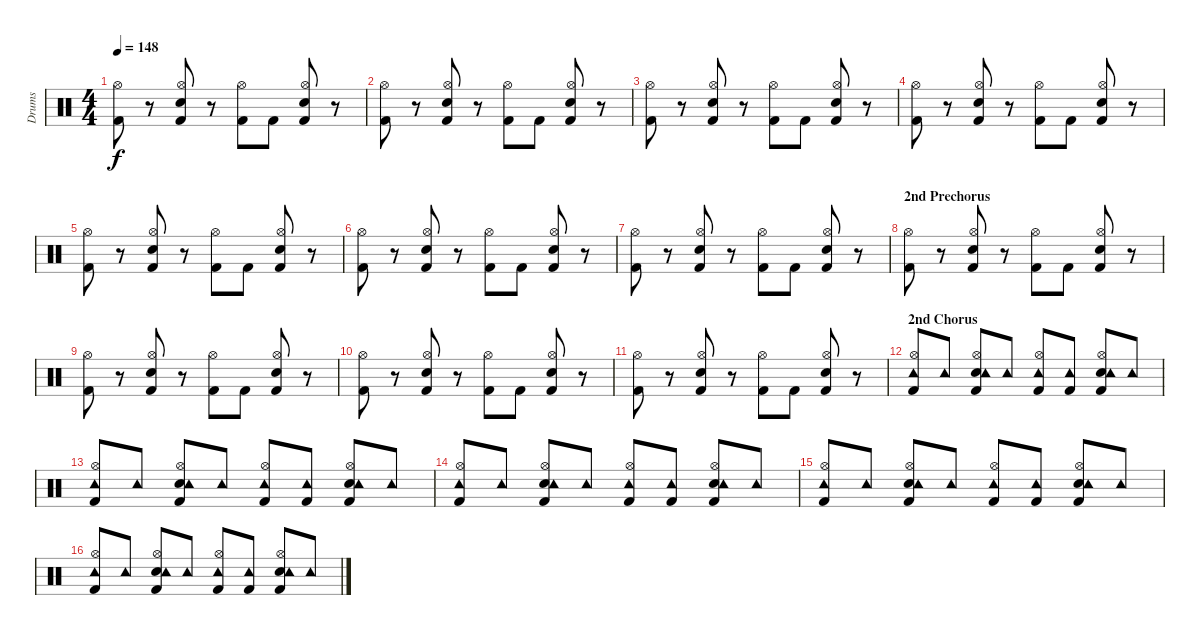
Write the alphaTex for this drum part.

\track ("Drums" "Drums") {instrument percussion}
\staff {score}
\articulation defaults
\ts (4 4)
\tempo 148
\clef neutral
\ks c
("Kick (hit) 2" "Hi-Hat (open)").8{dy f} r.8 ("Kick (hit) 2" "Electric Snare (hit)" "Hi-Hat (open)").8 r.8 ("Kick (hit) 2" "Hi-Hat (open)").8 "Kick (hit) 2".8 ("Kick (hit) 2" "Electric Snare (hit)" "Hi-Hat (open)").8 r.8 |
("Kick (hit) 2" "Hi-Hat (open)").8 r.8 ("Kick (hit) 2" "Electric Snare (hit)" "Hi-Hat (open)").8 r.8 ("Kick (hit) 2" "Hi-Hat (open)").8 "Kick (hit) 2".8 ("Kick (hit) 2" "Electric Snare (hit)" "Hi-Hat (open)").8 r.8 |
("Kick (hit) 2" "Hi-Hat (open)").8 r.8 ("Kick (hit) 2" "Electric Snare (hit)" "Hi-Hat (open)").8 r.8 ("Kick (hit) 2" "Hi-Hat (open)").8 "Kick (hit) 2".8 ("Kick (hit) 2" "Electric Snare (hit)" "Hi-Hat (open)").8 r.8 |
("Kick (hit) 2" "Hi-Hat (open)").8 r.8 ("Kick (hit) 2" "Electric Snare (hit)" "Hi-Hat (open)").8 r.8 ("Kick (hit) 2" "Hi-Hat (open)").8 "Kick (hit) 2".8 ("Kick (hit) 2" "Electric Snare (hit)" "Hi-Hat (open)").8 r.8 |
("Kick (hit) 2" "Hi-Hat (open)").8 r.8 ("Kick (hit) 2" "Electric Snare (hit)" "Hi-Hat (open)").8 r.8 ("Kick (hit) 2" "Hi-Hat (open)").8 "Kick (hit) 2".8 ("Kick (hit) 2" "Electric Snare (hit)" "Hi-Hat (open)").8 r.8 |
("Kick (hit) 2" "Hi-Hat (open)").8 r.8 ("Kick (hit) 2" "Electric Snare (hit)" "Hi-Hat (open)").8 r.8 ("Kick (hit) 2" "Hi-Hat (open)").8 "Kick (hit) 2".8 ("Kick (hit) 2" "Electric Snare (hit)" "Hi-Hat (open)").8 r.8 |
("Kick (hit) 2" "Hi-Hat (open)").8 r.8 ("Kick (hit) 2" "Electric Snare (hit)" "Hi-Hat (open)").8 r.8 ("Kick (hit) 2" "Hi-Hat (open)").8 "Kick (hit) 2".8 ("Kick (hit) 2" "Electric Snare (hit)" "Hi-Hat (open)").8 r.8 |
\section ("" "2nd Prechorus")
("Kick (hit) 2" "Hi-Hat (open)").8 r.8 ("Kick (hit) 2" "Electric Snare (hit)" "Hi-Hat (open)").8 r.8 ("Kick (hit) 2" "Hi-Hat (open)").8 "Kick (hit) 2".8 ("Kick (hit) 2" "Electric Snare (hit)" "Hi-Hat (open)").8 r.8 |
("Kick (hit) 2" "Hi-Hat (open)").8 r.8 ("Kick (hit) 2" "Electric Snare (hit)" "Hi-Hat (open)").8 r.8 ("Kick (hit) 2" "Hi-Hat (open)").8 "Kick (hit) 2".8 ("Kick (hit) 2" "Electric Snare (hit)" "Hi-Hat (open)").8 r.8 |
("Kick (hit) 2" "Hi-Hat (open)").8 r.8 ("Kick (hit) 2" "Electric Snare (hit)" "Hi-Hat (open)").8 r.8 ("Kick (hit) 2" "Hi-Hat (open)").8 "Kick (hit) 2".8 ("Kick (hit) 2" "Electric Snare (hit)" "Hi-Hat (open)").8 r.8 |
("Kick (hit) 2" "Hi-Hat (open)").8 r.8 ("Kick (hit) 2" "Electric Snare (hit)" "Hi-Hat (open)").8 r.8 ("Kick (hit) 2" "Hi-Hat (open)").8 "Kick (hit) 2".8 ("Kick (hit) 2" "Electric Snare (hit)" "Hi-Hat (open)").8 r.8 |
\section ("" "2nd Chorus")
("Kick (hit) 2" "Tambourine (hit)" "Hi-Hat (open)").8 "Tambourine (hit)".8 ("Kick (hit) 2" "Electric Snare (hit)" "Tambourine (hit)" "Hi-Hat (open)").8 "Tambourine (hit)".8 ("Kick (hit) 2" "Tambourine (hit)" "Hi-Hat (open)").8 ("Kick (hit) 2" "Tambourine (hit)").8 ("Kick (hit) 2" "Electric Snare (hit)" "Tambourine (hit)" "Hi-Hat (open)").8 "Tambourine (hit)".8 |
("Kick (hit) 2" "Tambourine (hit)" "Hi-Hat (open)").8 "Tambourine (hit)".8 ("Kick (hit) 2" "Electric Snare (hit)" "Tambourine (hit)" "Hi-Hat (open)").8 "Tambourine (hit)".8 ("Kick (hit) 2" "Tambourine (hit)" "Hi-Hat (open)").8 ("Kick (hit) 2" "Tambourine (hit)").8 ("Kick (hit) 2" "Electric Snare (hit)" "Tambourine (hit)" "Hi-Hat (open)").8 "Tambourine (hit)".8 |
("Kick (hit) 2" "Tambourine (hit)" "Hi-Hat (open)").8 "Tambourine (hit)".8 ("Kick (hit) 2" "Electric Snare (hit)" "Tambourine (hit)" "Hi-Hat (open)").8 "Tambourine (hit)".8 ("Kick (hit) 2" "Tambourine (hit)" "Hi-Hat (open)").8 ("Kick (hit) 2" "Tambourine (hit)").8 ("Kick (hit) 2" "Electric Snare (hit)" "Tambourine (hit)" "Hi-Hat (open)").8 "Tambourine (hit)".8 |
("Kick (hit) 2" "Tambourine (hit)" "Hi-Hat (open)").8 "Tambourine (hit)".8 ("Kick (hit) 2" "Electric Snare (hit)" "Tambourine (hit)" "Hi-Hat (open)").8 "Tambourine (hit)".8 ("Kick (hit) 2" "Tambourine (hit)" "Hi-Hat (open)").8 ("Kick (hit) 2" "Tambourine (hit)").8 ("Kick (hit) 2" "Electric Snare (hit)" "Tambourine (hit)" "Hi-Hat (open)").8 "Tambourine (hit)".8 |
("Kick (hit) 2" "Tambourine (hit)" "Hi-Hat (open)").8 "Tambourine (hit)".8 ("Kick (hit) 2" "Electric Snare (hit)" "Tambourine (hit)" "Hi-Hat (open)").8 "Tambourine (hit)".8 ("Kick (hit) 2" "Tambourine (hit)" "Hi-Hat (open)").8 ("Kick (hit) 2" "Tambourine (hit)").8 ("Kick (hit) 2" "Electric Snare (hit)" "Tambourine (hit)" "Hi-Hat (open)").8 "Tambourine (hit)".8
